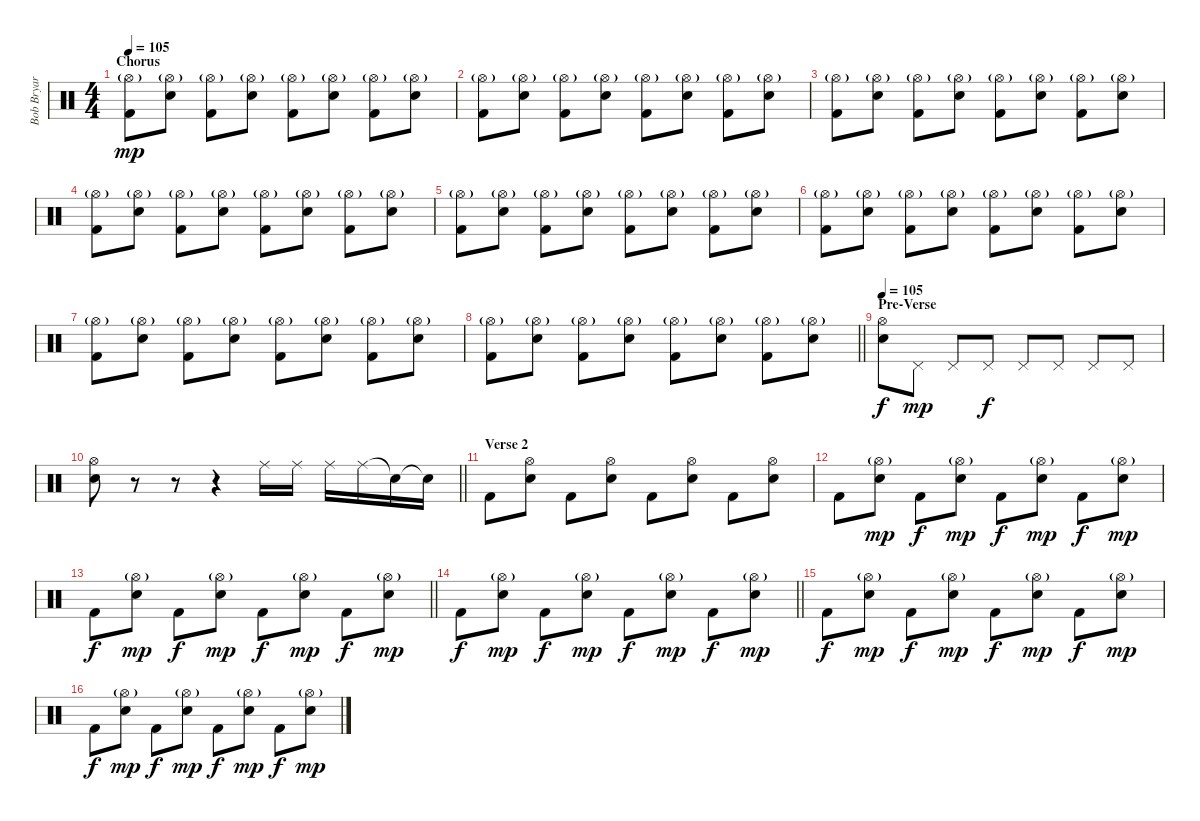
\track ("Bob Bryar" "Bob Bryar") {instrument percussion}
\staff {score}
\articulation defaults
\ts (4 4)
\section ("" "Chorus")
\tempo 105
\clef neutral
\ks c
("Hi-Hat (open)"{g} "Kick (hit) 2").8{dy mp} ("Hi-Hat (open)"{g} "Electric Snare (hit)").8 ("Hi-Hat (open)"{g} "Kick (hit) 2").8 ("Hi-Hat (open)"{g} "Electric Snare (hit)").8 ("Hi-Hat (open)"{g} "Kick (hit) 2").8 ("Hi-Hat (open)"{g} "Electric Snare (hit)").8 ("Hi-Hat (open)"{g} "Kick (hit) 2").8 ("Hi-Hat (open)"{g} "Electric Snare (hit)").8 |
("Hi-Hat (open)"{g} "Kick (hit) 2").8 ("Hi-Hat (open)"{g} "Electric Snare (hit)").8 ("Hi-Hat (open)"{g} "Kick (hit) 2").8 ("Hi-Hat (open)"{g} "Electric Snare (hit)").8 ("Hi-Hat (open)"{g} "Kick (hit) 2").8 ("Hi-Hat (open)"{g} "Electric Snare (hit)").8 ("Hi-Hat (open)"{g} "Kick (hit) 2").8 ("Hi-Hat (open)"{g} "Electric Snare (hit)").8 |
("Hi-Hat (open)"{g} "Kick (hit) 2").8 ("Hi-Hat (open)"{g} "Electric Snare (hit)").8 ("Hi-Hat (open)"{g} "Kick (hit) 2").8 ("Hi-Hat (open)"{g} "Electric Snare (hit)").8 ("Hi-Hat (open)"{g} "Kick (hit) 2").8 ("Hi-Hat (open)"{g} "Electric Snare (hit)").8 ("Hi-Hat (open)"{g} "Kick (hit) 2").8 ("Hi-Hat (open)"{g} "Electric Snare (hit)").8 |
("Hi-Hat (open)"{g} "Kick (hit) 2").8 ("Hi-Hat (open)"{g} "Electric Snare (hit)").8 ("Hi-Hat (open)"{g} "Kick (hit) 2").8 ("Hi-Hat (open)"{g} "Electric Snare (hit)").8 ("Hi-Hat (open)"{g} "Kick (hit) 2").8 ("Hi-Hat (open)"{g} "Electric Snare (hit)").8 ("Hi-Hat (open)"{g} "Kick (hit) 2").8 ("Hi-Hat (open)"{g} "Electric Snare (hit)").8 |
("Hi-Hat (open)"{g} "Kick (hit) 2").8 ("Hi-Hat (open)"{g} "Electric Snare (hit)").8 ("Hi-Hat (open)"{g} "Kick (hit) 2").8 ("Hi-Hat (open)"{g} "Electric Snare (hit)").8 ("Hi-Hat (open)"{g} "Kick (hit) 2").8 ("Hi-Hat (open)"{g} "Electric Snare (hit)").8 ("Hi-Hat (open)"{g} "Kick (hit) 2").8 ("Hi-Hat (open)"{g} "Electric Snare (hit)").8 |
("Hi-Hat (open)"{g} "Kick (hit) 2").8 ("Hi-Hat (open)"{g} "Electric Snare (hit)").8 ("Hi-Hat (open)"{g} "Kick (hit) 2").8 ("Hi-Hat (open)"{g} "Electric Snare (hit)").8 ("Hi-Hat (open)"{g} "Kick (hit) 2").8 ("Hi-Hat (open)"{g} "Electric Snare (hit)").8 ("Hi-Hat (open)"{g} "Kick (hit) 2").8 ("Hi-Hat (open)"{g} "Electric Snare (hit)").8 |
("Hi-Hat (open)"{g} "Kick (hit) 2").8 ("Hi-Hat (open)"{g} "Electric Snare (hit)").8 ("Hi-Hat (open)"{g} "Kick (hit) 2").8 ("Hi-Hat (open)"{g} "Electric Snare (hit)").8 ("Hi-Hat (open)"{g} "Kick (hit) 2").8 ("Hi-Hat (open)"{g} "Electric Snare (hit)").8 ("Hi-Hat (open)"{g} "Kick (hit) 2").8 ("Hi-Hat (open)"{g} "Electric Snare (hit)").8 |
\barLineRight lightlight
("Hi-Hat (open)"{g} "Kick (hit) 2").8 ("Hi-Hat (open)"{g} "Electric Snare (hit)").8 ("Hi-Hat (open)"{g} "Kick (hit) 2").8 ("Hi-Hat (open)"{g} "Electric Snare (hit)").8 ("Hi-Hat (open)"{g} "Kick (hit) 2").8 ("Hi-Hat (open)"{g} "Electric Snare (hit)").8 ("Hi-Hat (open)"{g} "Kick (hit) 2").8 ("Hi-Hat (open)"{g} "Electric Snare (hit)").8 |
\section ("" "Pre-Verse")
\tempo 105
("Hi-Hat (open)" "Electric Snare (hit)").8{dy f} "Pedal Hi-Hat (hit)".8{dy mp} "Pedal Hi-Hat (hit)".8 "Pedal Hi-Hat (hit)".8{dy f} "Pedal Hi-Hat (hit)".8 "Pedal Hi-Hat (hit)".8 "Pedal Hi-Hat (hit)".8 "Pedal Hi-Hat (hit)".8 |
\barLineRight lightlight
("Hi-Hat (open)" "Electric Snare (hit)").8 r.8 r.8 r.4 "Ride (middle)".16 "Ride (middle)".16 "Ride (middle)".16 "Ride (middle)".16 "Snare (hit)"{t}.16 "Snare (hit)"{t}.16 |
\section ("" "Verse 2")
"Kick (hit) 2".8 ("Hi-Hat (open)" "Electric Snare (hit)").8 "Kick (hit) 2".8 ("Hi-Hat (open)" "Electric Snare (hit)").8 "Kick (hit) 2".8 ("Hi-Hat (open)" "Electric Snare (hit)").8 "Kick (hit) 2".8 ("Hi-Hat (open)" "Electric Snare (hit)").8 |
"Kick (hit) 2".8 ("Hi-Hat (open)"{g} "Electric Snare (hit)").8{dy mp} "Kick (hit) 2".8{dy f} ("Hi-Hat (open)"{g} "Electric Snare (hit)").8{dy mp} "Kick (hit) 2".8{dy f} ("Hi-Hat (open)"{g} "Electric Snare (hit)").8{dy mp} "Kick (hit) 2".8{dy f} ("Hi-Hat (open)"{g} "Electric Snare (hit)").8{dy mp} |
\barLineRight lightlight "Kick (hit) 2".8{dy f}
("Hi-Hat (open)"{g} "Electric Snare (hit)").8{dy mp} "Kick (hit) 2".8{dy f} ("Hi-Hat (open)"{g} "Electric Snare (hit)").8{dy mp} "Kick (hit) 2".8{dy f} ("Hi-Hat (open)"{g} "Electric Snare (hit)").8{dy mp} "Kick (hit) 2".8{dy f} ("Hi-Hat (open)"{g} "Electric Snare (hit)").8{dy mp} |
\barLineRight lightlight "Kick (hit) 2".8{dy f}
("Hi-Hat (open)"{g} "Electric Snare (hit)").8{dy mp} "Kick (hit) 2".8{dy f} ("Hi-Hat (open)"{g} "Electric Snare (hit)").8{dy mp} "Kick (hit) 2".8{dy f} ("Hi-Hat (open)"{g} "Electric Snare (hit)").8{dy mp} "Kick (hit) 2".8{dy f} ("Hi-Hat (open)"{g} "Electric Snare (hit)").8{dy mp} |
"Kick (hit) 2".8{dy f} ("Hi-Hat (open)"{g} "Electric Snare (hit)").8{dy mp} "Kick (hit) 2".8{dy f} ("Hi-Hat (open)"{g} "Electric Snare (hit)").8{dy mp} "Kick (hit) 2".8{dy f} ("Hi-Hat (open)"{g} "Electric Snare (hit)").8{dy mp} "Kick (hit) 2".8{dy f} ("Hi-Hat (open)"{g} "Electric Snare (hit)").8{dy mp} |
"Kick (hit) 2".8{dy f} ("Hi-Hat (open)"{g} "Electric Snare (hit)").8{dy mp} "Kick (hit) 2".8{dy f} ("Hi-Hat (open)"{g} "Electric Snare (hit)").8{dy mp} "Kick (hit) 2".8{dy f} ("Hi-Hat (open)"{g} "Electric Snare (hit)").8{dy mp} "Kick (hit) 2".8{dy f} ("Hi-Hat (open)"{g} "Electric Snare (hit)").8{dy mp}
